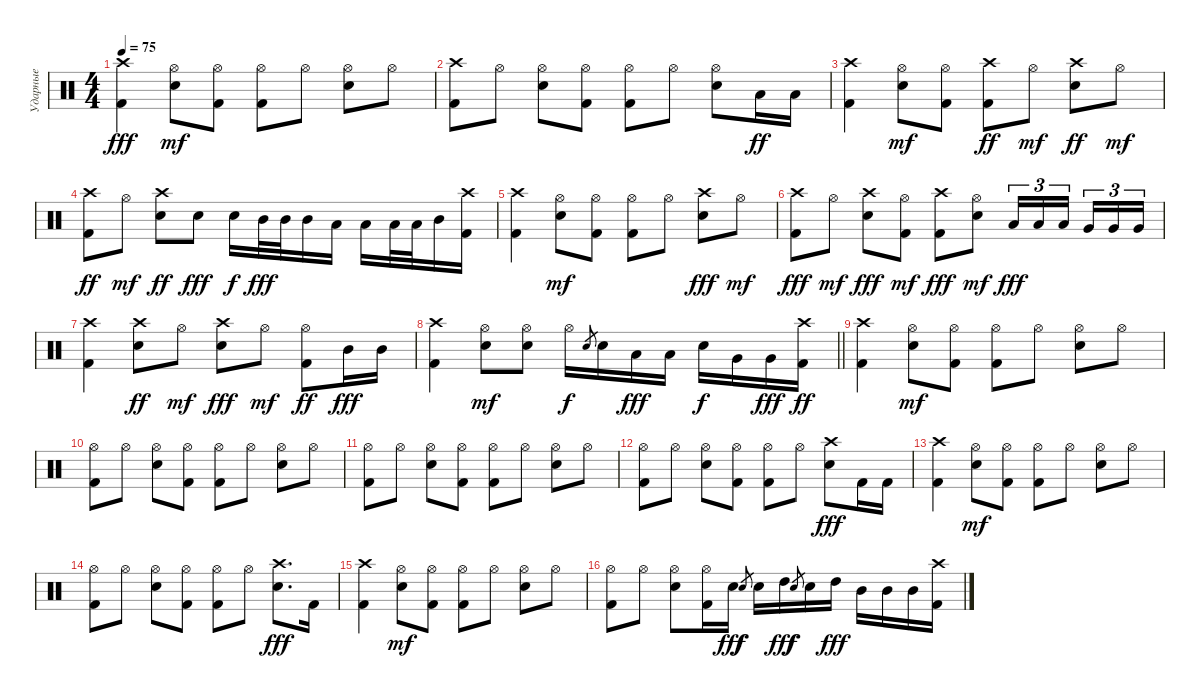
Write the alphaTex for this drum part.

\track ("Ударные" "Ударные") {instrument percussion}
\staff {score}
\articulation defaults
\ts (4 4)
\tempo 75
\clef neutral
\ks c
("Kick (hit) 2" "Crash high (hit)").4{dy fff} ("Snare (hit) 2" "Hi-Hat (open)").8{dy mf} ("Kick (hit) 2" "Hi-Hat (open)").8 ("Kick (hit) 2" "Hi-Hat (open)").8 "Hi-Hat (open)".8 ("Snare (hit) 2" "Hi-Hat (open)").8 "Hi-Hat (open)".8 |
("Kick (hit) 2" "Crash high (hit)").8 "Hi-Hat (open)".8 ("Snare (hit) 2" "Hi-Hat (open)").8 ("Kick (hit) 2" "Hi-Hat (open)").8 ("Kick (hit) 2" "Hi-Hat (open)").8 "Hi-Hat (open)".8 ("Snare (hit) 2" "Hi-Hat (open)").8 "Low Tom (hit)".16{dy ff} "Low Tom (hit)".16 |
("Kick (hit) 2" "Crash high (hit)").4 ("Snare (hit) 2" "Hi-Hat (open)").8{dy mf} ("Kick (hit) 2" "Hi-Hat (open)").8 ("Kick (hit) 2" "Crash high (hit)").8{dy ff} "Hi-Hat (open)".8{dy mf} ("Snare (hit) 2" "Crash high (hit)").8{dy ff} "Hi-Hat (open)".8{dy mf} |
("Kick (hit) 2" "Crash high (hit)").8{dy ff} "Hi-Hat (open)".8{dy mf} ("Snare (hit) 2" "Crash high (hit)").8{dy ff} "Snare (hit) 2".8{dy fff} "Snare (hit) 2".16{dy f} "Mid Tom (hit)".32{dy fff} "Mid Tom (hit)".32 "Mid Tom (hit)".16 "Low Tom (hit)".16 "Low Tom (hit)".16 "Low Tom (hit)".32 "Low Tom (hit)".32 "Mid Tom (hit)".16 ("Kick (hit) 2" "Crash high (hit)").16 |
("Kick (hit) 2" "Crash high (hit)").4 ("Snare (hit) 2" "Hi-Hat (open)").8{dy mf} ("Kick (hit) 2" "Hi-Hat (open)").8 ("Kick (hit) 2" "Hi-Hat (open)").8 "Hi-Hat (open)".8 ("Snare (hit) 2" "Crash high (hit)").8{dy fff} "Hi-Hat (open)".8{dy mf} |
("Kick (hit) 2" "Crash high (hit)").8{dy fff} "Hi-Hat (open)".8{dy mf} ("Snare (hit) 2" "Crash high (hit)").8{dy fff} ("Kick (hit) 2" "Hi-Hat (open)").8{dy mf} ("Kick (hit) 2" "Crash high (hit)").8{dy fff} ("Snare (hit) 2" "Hi-Hat (open)").8{dy mf} "Low Tom (hit)".16{tu (3 2) dy fff} "Low Tom (hit)".16{tu (3 2)} "Low Tom (hit)".16{tu (3 2) beam splitsecondary} "Very Low Tom (hit)".16{tu (3 2)} "Very Low Tom (hit)".16{tu (3 2)} "Very Low Tom (hit)".16{tu (3 2)} |
("Kick (hit) 2" "Crash high (hit)").4 ("Snare (hit) 2" "Crash high (hit)").8{dy ff} "Hi-Hat (open)".8{dy mf} ("Snare (hit) 2" "Crash high (hit)").8{dy fff} "Hi-Hat (open)".8{dy mf} ("Kick (hit) 2" "Hi-Hat (open)").8{dy ff} "Mid Tom (hit)".16{dy fff} "Mid Tom (hit)".16 |
\barLineRight lightlight
("Kick (hit) 2" "Crash high (hit)").4 ("Snare (hit) 2" "Hi-Hat (open)").8{dy mf} ("Snare (hit) 2" "Hi-Hat (open)").8 "Hi-Hat (open)".16{dy f} "Electric Snare (hit)".8{gr} "Electric Snare (hit)".16 "Low Tom (hit)".16{dy fff} "Low Tom (hit)".16 "Snare (hit) 2".16{dy f} "Very Low Tom (hit)".16 "Very Low Tom (hit)".16{dy fff} ("Kick (hit) 2" "Crash high (hit)").16{dy ff} |
("Kick (hit) 2" "Crash high (hit)").4 ("Snare (hit) 2" "Hi-Hat (open)").8{dy mf} ("Kick (hit) 2" "Hi-Hat (open)").8 ("Kick (hit) 2" "Hi-Hat (open)").8 "Hi-Hat (open)".8 ("Snare (hit) 2" "Hi-Hat (open)").8 "Hi-Hat (open)".8 |
("Kick (hit) 2" "Hi-Hat (open)").8 "Hi-Hat (open)".8 ("Snare (hit) 2" "Hi-Hat (open)").8 ("Kick (hit) 2" "Hi-Hat (open)").8 ("Kick (hit) 2" "Hi-Hat (open)").8 "Hi-Hat (open)".8 ("Snare (hit) 2" "Hi-Hat (open)").8 "Hi-Hat (open)".8 |
("Kick (hit) 2" "Hi-Hat (open)").8 "Hi-Hat (open)".8 ("Snare (hit) 2" "Hi-Hat (open)").8 ("Kick (hit) 2" "Hi-Hat (open)").8 ("Kick (hit) 2" "Hi-Hat (open)").8 "Hi-Hat (open)".8 ("Snare (hit) 2" "Hi-Hat (open)").8 "Hi-Hat (open)".8 |
("Kick (hit) 2" "Hi-Hat (open)").8 "Hi-Hat (open)".8 ("Snare (hit) 2" "Hi-Hat (open)").8 ("Kick (hit) 2" "Hi-Hat (open)").8 ("Kick (hit) 2" "Hi-Hat (open)").8 "Hi-Hat (open)".8 ("Snare (hit) 2" "Crash high (hit)").8{dy fff} "Kick (hit) 2".16 "Kick (hit) 2".16 |
("Kick (hit) 2" "Crash high (hit)").4 ("Snare (hit) 2" "Hi-Hat (open)").8{dy mf} ("Kick (hit) 2" "Hi-Hat (open)").8 ("Kick (hit) 2" "Hi-Hat (open)").8 "Hi-Hat (open)".8 ("Snare (hit) 2" "Hi-Hat (open)").8 "Hi-Hat (open)".8 |
("Kick (hit) 2" "Hi-Hat (open)").8 "Hi-Hat (open)".8 ("Snare (hit) 2" "Hi-Hat (open)").8 ("Kick (hit) 2" "Hi-Hat (open)").8 ("Kick (hit) 2" "Hi-Hat (open)").8 "Hi-Hat (open)".8 ("Snare (hit) 2" "Crash high (hit)").8{d dy fff} "Kick (hit) 2".16 |
("Kick (hit) 2" "Crash high (hit)").4 ("Snare (hit) 2" "Hi-Hat (open)").8{dy mf} ("Kick (hit) 2" "Hi-Hat (open)").8 ("Kick (hit) 2" "Hi-Hat (open)").8 "Hi-Hat (open)".8 ("Snare (hit) 2" "Hi-Hat (open)").8 "Hi-Hat (open)".8 |
("Kick (hit) 2" "Hi-Hat (open)").8 "Hi-Hat (open)".8 ("Snare (hit) 2" "Hi-Hat (open)").8 ("Kick (hit) 2" "Hi-Hat (open)").16 "Snare (hit) 2".16{dy fff} "Snare (hit) 2".8{gr dy f} "Snare (hit) 2".16 "High Tom (hit)".16{dy fff} "Snare (hit) 2".8{gr dy f} "Snare (hit) 2".16 "High Tom (hit)".16{dy fff} "Mid Tom (hit)".16 "Mid Tom (hit)".16 "Mid Tom (hit)".16 ("Kick (hit) 2" "Crash high (hit)").16
